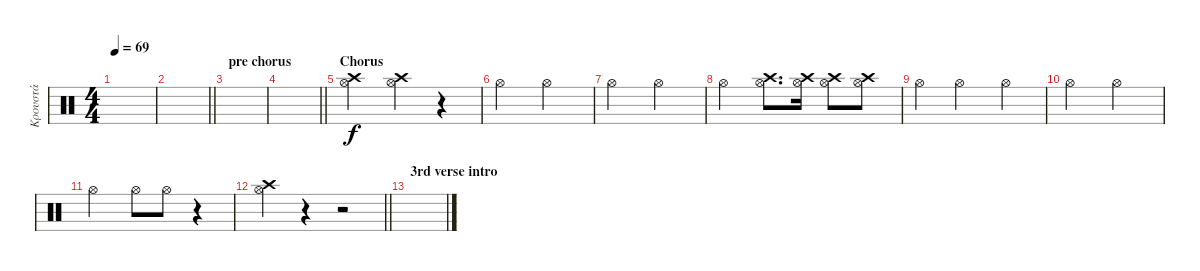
\track ("Κρουστά" "Κρουστά") {instrument percussion}
\staff {score}
\articulation defaults
\ts (4 4)
\tempo 69
\clef neutral
\ks c
|
\barLineRight lightlight
|
\section ("" "pre chorus")
|
\barLineRight lightlight
|
\section ("" "Chorus")
("Crash high (hit)" "Hi-Hat (open)").2 ("Hi-Hat (open)" "Crash high (hit)").4 r.4 |
"Hi-Hat (open)".2 "Hi-Hat (open)".2 |
"Hi-Hat (open)".2 "Hi-Hat (open)".2 |
"Hi-Hat (open)".2 ("Crash high (hit)" "Hi-Hat (open)").8{d} ("Hi-Hat (open)" "Crash high (hit)").16 ("Hi-Hat (open)" "Crash high (hit)").8 ("Hi-Hat (open)" "Crash high (hit)").8 |
"Hi-Hat (open)".4 "Hi-Hat (open)".2 "Hi-Hat (open)".4 |
"Hi-Hat (open)".2 "Hi-Hat (open)".2 |
"Hi-Hat (open)".2 "Hi-Hat (open)".8 "Hi-Hat (open)".8 r.4 |
\barLineRight lightlight
("Hi-Hat (open)" "Crash high (hit)").4 r.4 r.2 |
\section ("" "3rd verse intro")
